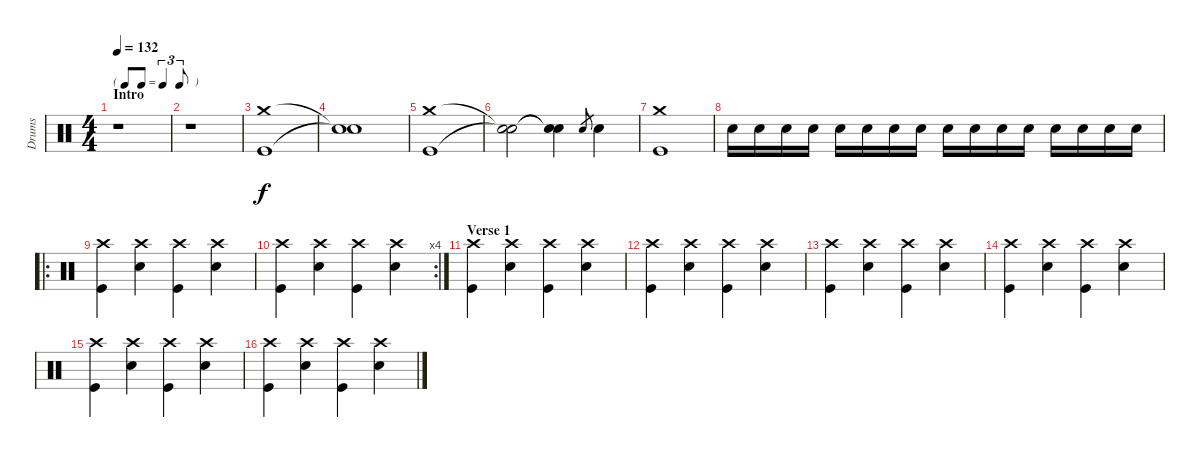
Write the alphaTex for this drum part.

\track ("Drums" "Drums") {instrument percussion}
\staff {score}
\articulation defaults
\ts (4 4)
\tf triplet8th
\section ("" "Intro")
\tempo 132
\clef neutral
\ks c
r.1{dy f} |
r.1 |
("Crash medium (hit)" "Kick (hit)").1 |
("Snare (hit)"{t} "Snare (hit)"{t}).1 |
("Crash medium (hit)" "Kick (hit)").1 |
("Snare (hit)"{t} "Snare (hit)"{t}).2 ("Snare (hit)"{t} "Snare (hit)"{t}).4 "Snare (hit) 2".8{gr} "Snare (hit) 2".4 |
("Crash medium (hit)" "Kick (hit)").1 |
"Snare (hit) 2".16 "Snare (hit) 2".16 "Snare (hit) 2".16 "Snare (hit) 2".16 "Snare (hit) 2".16 "Snare (hit) 2".16 "Snare (hit) 2".16 "Snare (hit) 2".16 "Snare (hit) 2".16 "Snare (hit) 2".16 "Snare (hit) 2".16 "Snare (hit) 2".16 "Snare (hit) 2".16 "Snare (hit) 2".16 "Snare (hit) 2".16 "Snare (hit) 2".16 |
\ro
("Crash high (hit)" "Kick (hit)").4 ("Crash high (hit)" "Snare (hit) 2").4 ("Crash high (hit)" "Kick (hit)").4 ("Crash high (hit)" "Snare (hit) 2").4 |
\rc 4
("Crash high (hit)" "Kick (hit)").4 ("Crash high (hit)" "Snare (hit) 2").4 ("Crash high (hit)" "Kick (hit)").4 ("Crash high (hit)" "Snare (hit) 2").4 |
\section ("" "Verse 1")
("Crash high (hit)" "Kick (hit)").4 ("Crash high (hit)" "Snare (hit) 2").4 ("Crash high (hit)" "Kick (hit)").4 ("Crash high (hit)" "Snare (hit) 2").4 |
("Crash high (hit)" "Kick (hit)").4 ("Crash high (hit)" "Snare (hit) 2").4 ("Crash high (hit)" "Kick (hit)").4 ("Crash high (hit)" "Snare (hit) 2").4 |
("Crash high (hit)" "Kick (hit)").4 ("Crash high (hit)" "Snare (hit) 2").4 ("Crash high (hit)" "Kick (hit)").4 ("Crash high (hit)" "Snare (hit) 2").4 |
("Crash high (hit)" "Kick (hit)").4 ("Crash high (hit)" "Snare (hit) 2").4 ("Crash high (hit)" "Kick (hit)").4 ("Crash high (hit)" "Snare (hit) 2").4 |
("Crash high (hit)" "Kick (hit)").4 ("Crash high (hit)" "Snare (hit) 2").4 ("Crash high (hit)" "Kick (hit)").4 ("Crash high (hit)" "Snare (hit) 2").4 |
("Crash high (hit)" "Kick (hit)").4 ("Crash high (hit)" "Snare (hit) 2").4 ("Crash high (hit)" "Kick (hit)").4 ("Crash high (hit)" "Snare (hit) 2").4
